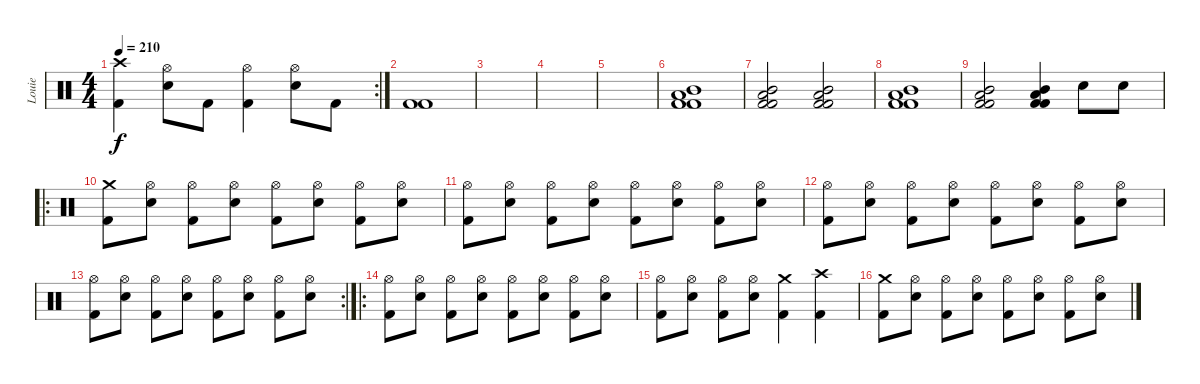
\track ("Louie" "Louie") {instrument percussion}
\staff {score}
\articulation defaults
\rc 2
\ts (4 4)
\tempo 210
\clef neutral
\ks c
("Crash high (hit)" "Kick (hit) 2").4{dy f} ("Hi-Hat (open)" "Snare (hit) 2").8 "Kick (hit) 2".8 ("Hi-Hat (open)" "Kick (hit) 2").4 ("Hi-Hat (open)" "Snare (hit) 2").8 "Kick (hit) 2".8 |
("Kick (hit) 2" "Kick (hit) 2").1 |
|
|
|
("Low Tom (hit)" "Mid Tom (hit)" "Kick (hit) 2" "Kick (hit) 2").1 |
("Low Tom (hit)" "Mid Tom (hit)" "Kick (hit) 2" "Kick (hit) 2").2 ("Low Tom (hit)" "Mid Tom (hit)" "Kick (hit) 2" "Kick (hit) 2").2 |
("Low Tom (hit)" "Mid Tom (hit)" "Kick (hit) 2" "Kick (hit) 2").1 |
("Low Tom (hit)" "Mid Tom (hit)" "Kick (hit) 2" "Kick (hit) 2").2 ("Low Tom (hit)" "Mid Tom (hit)" "Kick (hit) 2" "Kick (hit) 2").4 "Snare (hit) 2".8 "Snare (hit) 2".8 |
\ro
("Crash medium (hit)" "Kick (hit) 2").8 ("Hi-Hat (open)" "Snare (hit) 2").8 ("Hi-Hat (open)" "Kick (hit) 2").8 ("Hi-Hat (open)" "Snare (hit) 2").8 ("Hi-Hat (open)" "Kick (hit) 2").8 ("Hi-Hat (open)" "Snare (hit) 2").8 ("Hi-Hat (open)" "Kick (hit) 2").8 ("Hi-Hat (open)" "Snare (hit) 2").8 |
("Hi-Hat (open)" "Kick (hit) 2").8 ("Hi-Hat (open)" "Snare (hit) 2").8 ("Hi-Hat (open)" "Kick (hit) 2").8 ("Hi-Hat (open)" "Snare (hit) 2").8 ("Hi-Hat (open)" "Kick (hit) 2").8 ("Hi-Hat (open)" "Snare (hit) 2").8 ("Hi-Hat (open)" "Kick (hit) 2").8 ("Hi-Hat (open)" "Snare (hit) 2").8 |
("Hi-Hat (open)" "Kick (hit) 2").8 ("Hi-Hat (open)" "Snare (hit) 2").8 ("Hi-Hat (open)" "Kick (hit) 2").8 ("Hi-Hat (open)" "Snare (hit) 2").8 ("Hi-Hat (open)" "Kick (hit) 2").8 ("Hi-Hat (open)" "Snare (hit) 2").8 ("Hi-Hat (open)" "Kick (hit) 2").8 ("Hi-Hat (open)" "Snare (hit) 2").8 |
\rc 2
("Hi-Hat (open)" "Kick (hit) 2").8 ("Hi-Hat (open)" "Snare (hit) 2").8 ("Hi-Hat (open)" "Kick (hit) 2").8 ("Hi-Hat (open)" "Snare (hit) 2").8 ("Hi-Hat (open)" "Kick (hit) 2").8 ("Hi-Hat (open)" "Snare (hit) 2").8 ("Hi-Hat (open)" "Kick (hit) 2").8 ("Hi-Hat (open)" "Snare (hit) 2").8 |
\ro
("Hi-Hat (open)" "Kick (hit) 2").8 ("Hi-Hat (open)" "Snare (hit) 2").8 ("Hi-Hat (open)" "Kick (hit) 2").8 ("Hi-Hat (open)" "Snare (hit) 2").8 ("Hi-Hat (open)" "Kick (hit) 2").8 ("Hi-Hat (open)" "Snare (hit) 2").8 ("Hi-Hat (open)" "Kick (hit) 2").8 ("Hi-Hat (open)" "Snare (hit) 2").8 |
("Hi-Hat (open)" "Kick (hit) 2").8 ("Hi-Hat (open)" "Snare (hit) 2").8 ("Hi-Hat (open)" "Kick (hit) 2").8 ("Hi-Hat (open)" "Snare (hit) 2").8 ("Crash medium (hit)" "Kick (hit) 2").4 ("Crash high (hit)" "Kick (hit) 2").4 |
("Crash medium (hit)" "Kick (hit) 2").8 ("Hi-Hat (open)" "Snare (hit) 2").8 ("Hi-Hat (open)" "Kick (hit) 2").8 ("Hi-Hat (open)" "Snare (hit) 2").8 ("Hi-Hat (open)" "Kick (hit) 2").8 ("Hi-Hat (open)" "Snare (hit) 2").8 ("Hi-Hat (open)" "Kick (hit) 2").8 ("Hi-Hat (open)" "Snare (hit) 2").8
